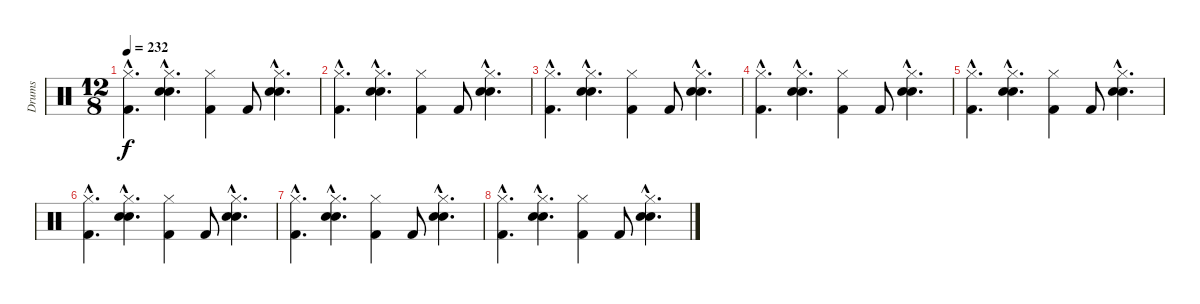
\track ("Drums" "Drums") {instrument percussion}
\staff {score}
\articulation defaults
\ts (12 8)
\tempo 232
\clef neutral
\ks c
("Hi-Hat (closed)"{hac} "Kick (hit) 2"{hac}).4{d dy f} ("Hand Clap (hit)"{hac} "Hi-Hat (closed)"{hac} "Snare (hit) 2"{hac}).4{d} ("Hi-Hat (closed)" "Kick (hit) 2").4 "Kick (hit) 2".8 ("Hand Clap (hit)"{hac} "Hi-Hat (closed)"{hac} "Snare (hit) 2"{hac}).4{d} |
("Hi-Hat (closed)"{hac} "Kick (hit) 2"{hac}).4{d} ("Hand Clap (hit)"{hac} "Hi-Hat (closed)"{hac} "Snare (hit) 2"{hac}).4{d} ("Hi-Hat (closed)" "Kick (hit) 2").4 "Kick (hit) 2".8 ("Hand Clap (hit)"{hac} "Hi-Hat (closed)"{hac} "Snare (hit) 2"{hac}).4{d} |
("Hi-Hat (closed)"{hac} "Kick (hit) 2"{hac}).4{d} ("Hand Clap (hit)"{hac} "Hi-Hat (closed)"{hac} "Snare (hit) 2"{hac}).4{d} ("Hi-Hat (closed)" "Kick (hit) 2").4 "Kick (hit) 2".8 ("Hand Clap (hit)"{hac} "Hi-Hat (closed)"{hac} "Snare (hit) 2"{hac}).4{d} |
("Hi-Hat (closed)"{hac} "Kick (hit) 2"{hac}).4{d} ("Hand Clap (hit)"{hac} "Hi-Hat (closed)"{hac} "Snare (hit) 2"{hac}).4{d} ("Hi-Hat (closed)" "Kick (hit) 2").4 "Kick (hit) 2".8 ("Hand Clap (hit)"{hac} "Hi-Hat (closed)"{hac} "Snare (hit) 2"{hac}).4{d} |
("Hi-Hat (closed)"{hac} "Kick (hit) 2"{hac}).4{d} ("Hand Clap (hit)"{hac} "Hi-Hat (closed)"{hac} "Snare (hit) 2"{hac}).4{d} ("Hi-Hat (closed)" "Kick (hit) 2").4 "Kick (hit) 2".8 ("Hand Clap (hit)"{hac} "Hi-Hat (closed)"{hac} "Snare (hit) 2"{hac}).4{d} |
("Hi-Hat (closed)"{hac} "Kick (hit) 2"{hac}).4{d} ("Hand Clap (hit)"{hac} "Hi-Hat (closed)"{hac} "Snare (hit) 2"{hac}).4{d} ("Hi-Hat (closed)" "Kick (hit) 2").4 "Kick (hit) 2".8 ("Hand Clap (hit)"{hac} "Hi-Hat (closed)"{hac} "Snare (hit) 2"{hac}).4{d} |
("Hi-Hat (closed)"{hac} "Kick (hit) 2"{hac}).4{d} ("Hand Clap (hit)"{hac} "Hi-Hat (closed)"{hac} "Snare (hit) 2"{hac}).4{d} ("Hi-Hat (closed)" "Kick (hit) 2").4 "Kick (hit) 2".8 ("Hand Clap (hit)"{hac} "Hi-Hat (closed)"{hac} "Snare (hit) 2"{hac}).4{d} |
("Hi-Hat (closed)"{hac} "Kick (hit) 2"{hac}).4{d} ("Hand Clap (hit)"{hac} "Hi-Hat (closed)"{hac} "Snare (hit) 2"{hac}).4{d} ("Hi-Hat (closed)" "Kick (hit) 2").4 "Kick (hit) 2".8 ("Hand Clap (hit)"{hac} "Hi-Hat (closed)"{hac} "Snare (hit) 2"{hac}).4{d}
